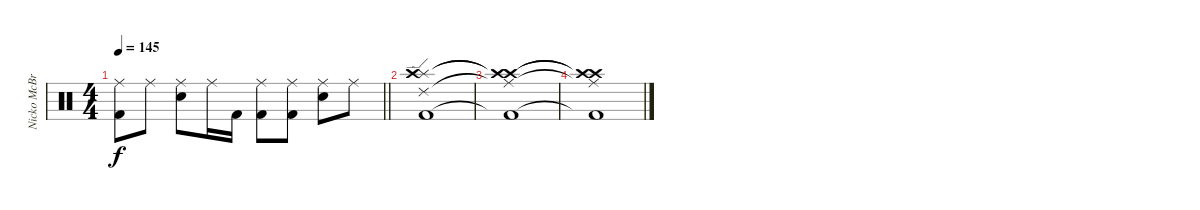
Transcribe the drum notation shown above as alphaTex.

\track ("Nicko McBrain" "Nicko McBr") {instrument percussion}
\staff {score}
\articulation defaults
\ts (4 4)
\tempo 145
\clef neutral
\barLineRight lightlight
\ks c
("Ride (middle)" "Kick (hit) 2").8{dy f} "Ride (middle)".8 ("Ride (middle)" "Snare (hit) 2").8 "Ride (middle)".16 "Kick (hit) 2".16 ("Ride (middle)" "Kick (hit) 2").8 ("Ride (middle)" "Kick (hit) 2").8 ("Ride (middle)" "Snare (hit) 2").8 "Ride (middle)".8 |
("Ride (edge) 2" "Splash (hit)" "Crash high (hit)" "Kick (hit) 2").1 |
("Ride (middle)"{t} "Crash high (hit)"{t} "Crash high (hit)"{t} "Kick (hit) 2"{t}).1 |
("Ride (middle)"{t} "Crash high (hit)"{t} "Crash high (hit)"{t} "Kick (hit) 2"{t}).1
